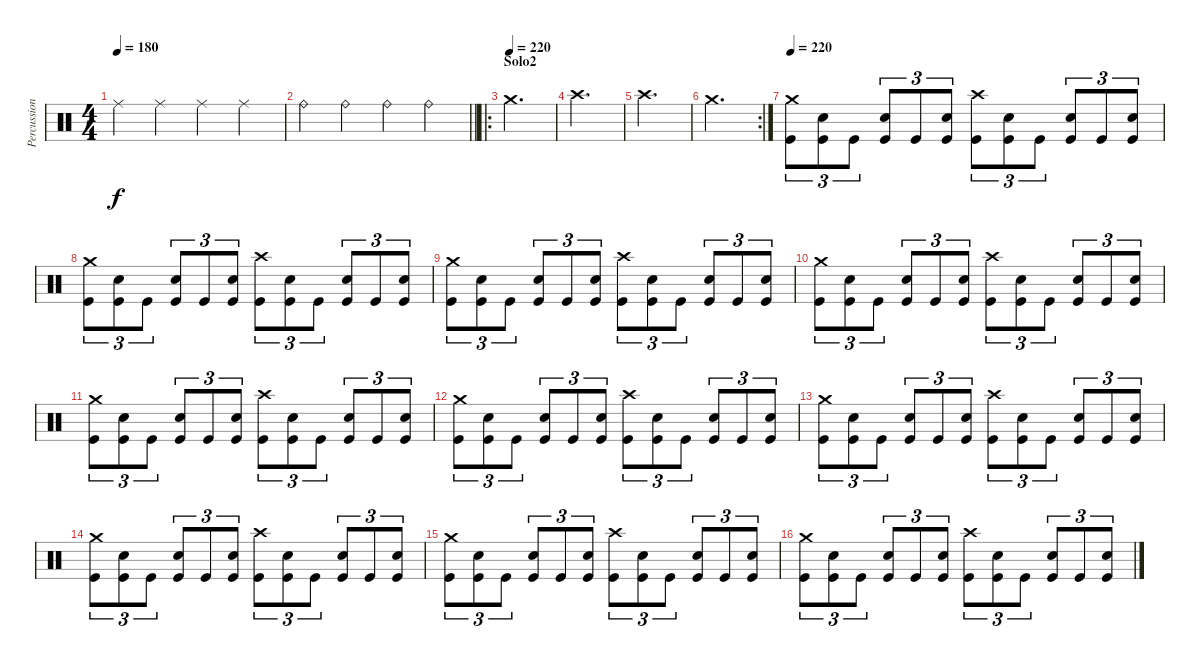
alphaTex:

\track ("Percussion" "Percussion") {instrument percussion}
\staff {score}
\articulation defaults
\ts (4 4)
\tempo 180
\clef neutral
\ks c "Ride (middle)".4{dy f} "Ride (middle)".4 "Ride (middle)".4 "Ride (middle)".4
|
\barLineRight lightlight "Ride (bell)".4 "Ride (bell)".4 "Ride (bell)".4 "Ride (bell)".4
|
\ro
\section ("" "Solo2")
\tempo (220)
"Crash medium (hit)".4{d} |
"Crash high (hit)".4{d} |
"Crash high (hit)".4{d} |
\rc 2 "Crash medium (hit)".4{d}
|
\tempo 220
("Crash medium (hit)" "Kick (hit)").8{tu (3 2)} ("Electric Snare (hit)" "Kick (hit)").8{tu (3 2)} "Kick (hit)".8{tu (3 2)} ("Electric Snare (hit)" "Kick (hit)").8{tu (3 2)} "Kick (hit)".8{tu (3 2)} ("Electric Snare (hit)" "Kick (hit)").8{tu (3 2)} ("Crash high (hit)" "Kick (hit)").8{tu (3 2)} ("Electric Snare (hit)" "Kick (hit)").8{tu (3 2)} "Kick (hit)".8{tu (3 2)} ("Electric Snare (hit)" "Kick (hit)").8{tu (3 2)} "Kick (hit)".8{tu (3 2)} ("Electric Snare (hit)" "Kick (hit)").8{tu (3 2)} |
("Crash medium (hit)" "Kick (hit)").8{tu (3 2)} ("Electric Snare (hit)" "Kick (hit)").8{tu (3 2)} "Kick (hit)".8{tu (3 2)} ("Electric Snare (hit)" "Kick (hit)").8{tu (3 2)} "Kick (hit)".8{tu (3 2)} ("Electric Snare (hit)" "Kick (hit)").8{tu (3 2)} ("Crash high (hit)" "Kick (hit)").8{tu (3 2)} ("Electric Snare (hit)" "Kick (hit)").8{tu (3 2)} "Kick (hit)".8{tu (3 2)} ("Electric Snare (hit)" "Kick (hit)").8{tu (3 2)} "Kick (hit)".8{tu (3 2)} ("Electric Snare (hit)" "Kick (hit)").8{tu (3 2)} |
("Crash medium (hit)" "Kick (hit)").8{tu (3 2)} ("Electric Snare (hit)" "Kick (hit)").8{tu (3 2)} "Kick (hit)".8{tu (3 2)} ("Electric Snare (hit)" "Kick (hit)").8{tu (3 2)} "Kick (hit)".8{tu (3 2)} ("Electric Snare (hit)" "Kick (hit)").8{tu (3 2)} ("Crash high (hit)" "Kick (hit)").8{tu (3 2)} ("Electric Snare (hit)" "Kick (hit)").8{tu (3 2)} "Kick (hit)".8{tu (3 2)} ("Electric Snare (hit)" "Kick (hit)").8{tu (3 2)} "Kick (hit)".8{tu (3 2)} ("Electric Snare (hit)" "Kick (hit)").8{tu (3 2)} |
("Crash medium (hit)" "Kick (hit)").8{tu (3 2)} ("Electric Snare (hit)" "Kick (hit)").8{tu (3 2)} "Kick (hit)".8{tu (3 2)} ("Electric Snare (hit)" "Kick (hit)").8{tu (3 2)} "Kick (hit)".8{tu (3 2)} ("Electric Snare (hit)" "Kick (hit)").8{tu (3 2)} ("Crash high (hit)" "Kick (hit)").8{tu (3 2)} ("Electric Snare (hit)" "Kick (hit)").8{tu (3 2)} "Kick (hit)".8{tu (3 2)} ("Electric Snare (hit)" "Kick (hit)").8{tu (3 2)} "Kick (hit)".8{tu (3 2)} ("Electric Snare (hit)" "Kick (hit)").8{tu (3 2)} |
("Crash medium (hit)" "Kick (hit)").8{tu (3 2)} ("Electric Snare (hit)" "Kick (hit)").8{tu (3 2)} "Kick (hit)".8{tu (3 2)} ("Electric Snare (hit)" "Kick (hit)").8{tu (3 2)} "Kick (hit)".8{tu (3 2)} ("Electric Snare (hit)" "Kick (hit)").8{tu (3 2)} ("Crash high (hit)" "Kick (hit)").8{tu (3 2)} ("Electric Snare (hit)" "Kick (hit)").8{tu (3 2)} "Kick (hit)".8{tu (3 2)} ("Electric Snare (hit)" "Kick (hit)").8{tu (3 2)} "Kick (hit)".8{tu (3 2)} ("Electric Snare (hit)" "Kick (hit)").8{tu (3 2)} |
("Crash medium (hit)" "Kick (hit)").8{tu (3 2)} ("Electric Snare (hit)" "Kick (hit)").8{tu (3 2)} "Kick (hit)".8{tu (3 2)} ("Electric Snare (hit)" "Kick (hit)").8{tu (3 2)} "Kick (hit)".8{tu (3 2)} ("Electric Snare (hit)" "Kick (hit)").8{tu (3 2)} ("Crash high (hit)" "Kick (hit)").8{tu (3 2)} ("Electric Snare (hit)" "Kick (hit)").8{tu (3 2)} "Kick (hit)".8{tu (3 2)} ("Electric Snare (hit)" "Kick (hit)").8{tu (3 2)} "Kick (hit)".8{tu (3 2)} ("Electric Snare (hit)" "Kick (hit)").8{tu (3 2)} |
("Crash medium (hit)" "Kick (hit)").8{tu (3 2)} ("Electric Snare (hit)" "Kick (hit)").8{tu (3 2)} "Kick (hit)".8{tu (3 2)} ("Electric Snare (hit)" "Kick (hit)").8{tu (3 2)} "Kick (hit)".8{tu (3 2)} ("Electric Snare (hit)" "Kick (hit)").8{tu (3 2)} ("Crash high (hit)" "Kick (hit)").8{tu (3 2)} ("Electric Snare (hit)" "Kick (hit)").8{tu (3 2)} "Kick (hit)".8{tu (3 2)} ("Electric Snare (hit)" "Kick (hit)").8{tu (3 2)} "Kick (hit)".8{tu (3 2)} ("Electric Snare (hit)" "Kick (hit)").8{tu (3 2)} |
("Crash medium (hit)" "Kick (hit)").8{tu (3 2)} ("Electric Snare (hit)" "Kick (hit)").8{tu (3 2)} "Kick (hit)".8{tu (3 2)} ("Electric Snare (hit)" "Kick (hit)").8{tu (3 2)} "Kick (hit)".8{tu (3 2)} ("Electric Snare (hit)" "Kick (hit)").8{tu (3 2)} ("Crash high (hit)" "Kick (hit)").8{tu (3 2)} ("Electric Snare (hit)" "Kick (hit)").8{tu (3 2)} "Kick (hit)".8{tu (3 2)} ("Electric Snare (hit)" "Kick (hit)").8{tu (3 2)} "Kick (hit)".8{tu (3 2)} ("Electric Snare (hit)" "Kick (hit)").8{tu (3 2)} |
("Crash medium (hit)" "Kick (hit)").8{tu (3 2)} ("Electric Snare (hit)" "Kick (hit)").8{tu (3 2)} "Kick (hit)".8{tu (3 2)} ("Electric Snare (hit)" "Kick (hit)").8{tu (3 2)} "Kick (hit)".8{tu (3 2)} ("Electric Snare (hit)" "Kick (hit)").8{tu (3 2)} ("Crash high (hit)" "Kick (hit)").8{tu (3 2)} ("Electric Snare (hit)" "Kick (hit)").8{tu (3 2)} "Kick (hit)".8{tu (3 2)} ("Electric Snare (hit)" "Kick (hit)").8{tu (3 2)} "Kick (hit)".8{tu (3 2)} ("Electric Snare (hit)" "Kick (hit)").8{tu (3 2)} |
("Crash medium (hit)" "Kick (hit)").8{tu (3 2)} ("Electric Snare (hit)" "Kick (hit)").8{tu (3 2)} "Kick (hit)".8{tu (3 2)} ("Electric Snare (hit)" "Kick (hit)").8{tu (3 2)} "Kick (hit)".8{tu (3 2)} ("Electric Snare (hit)" "Kick (hit)").8{tu (3 2)} ("Crash high (hit)" "Kick (hit)").8{tu (3 2)} ("Electric Snare (hit)" "Kick (hit)").8{tu (3 2)} "Kick (hit)".8{tu (3 2)} ("Electric Snare (hit)" "Kick (hit)").8{tu (3 2)} "Kick (hit)".8{tu (3 2)} ("Electric Snare (hit)" "Kick (hit)").8{tu (3 2)}
